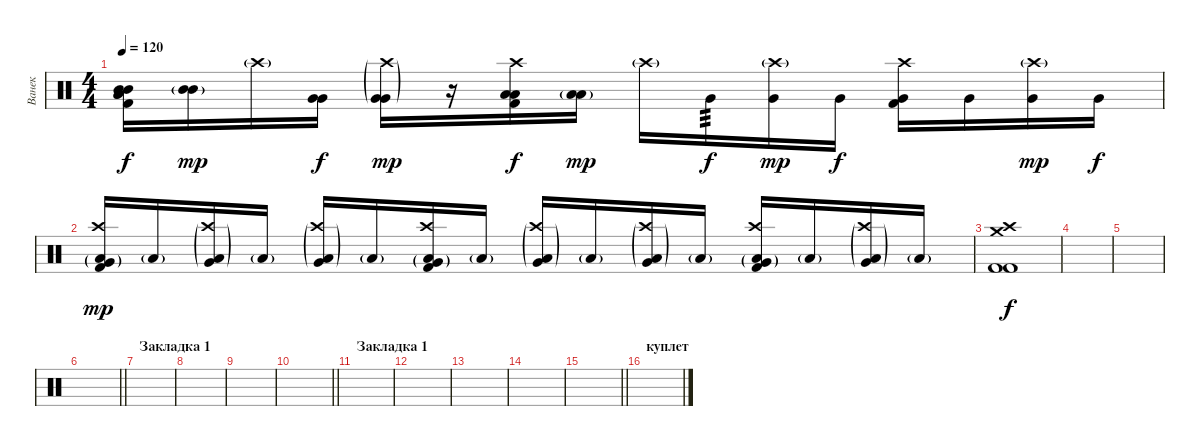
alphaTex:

\track ("Ванек" "Ванек") {instrument percussion}
\staff {score}
\articulation defaults
\ts (4 4)
\tempo 120
\clef neutral
\ks c
("Low Tom (hit)" "Mid Tom (hit)" "Mid Tom (hit)" "Low Floor Tom (hit)" "Kick (hit) 2").16{dy f} ("Mid Tom (hit)"{g} "Mid Tom (hit)"{g}).16{dy mp} "Crash high (hit)"{g}.16 ("Very Low Tom (hit)" "Very Low Tom (hit)").16{dy f} ("Crash high (hit)"{g} "Very Low Tom (hit)"{g} "Very Low Tom (hit)"{g}).16{dy mp} r.16 ("Crash high (hit)" "Low Floor Tom (hit)" "Low Floor Tom (hit)" "Kick (hit) 2").16{dy f} ("Low Floor Tom (hit)"{g} "Low Floor Tom (hit)"{g}).16{dy mp} "Crash high (hit)"{g}.16 "Very Low Tom (hit)".16{tp 3 dy f} ("Crash high (hit)"{g} "Very Low Tom (hit)").16{dy mp} "Very Low Tom (hit)".16{dy f} ("Crash high (hit)" "Very Low Tom (hit)" "Kick (hit) 2").16 "Very Low Tom (hit)".16 ("Crash high (hit)"{g} "Very Low Tom (hit)").16{dy mp} "Very Low Tom (hit)".16{dy f} |
("Crash high (hit)" "Very Low Tom (hit)"{g} "Low Floor Tom (hit)"{g} "Kick (hit) 2").16{dy mp} "Low Floor Tom (hit)"{g}.16 ("Crash high (hit)"{g} "Very Low Tom (hit)"{g} "Low Floor Tom (hit)"{g}).16 "Low Floor Tom (hit)"{g}.16 ("Crash high (hit)"{g} "Very Low Tom (hit)"{g} "Low Floor Tom (hit)"{g}).16 "Low Floor Tom (hit)"{g}.16 ("Crash high (hit)" "Very Low Tom (hit)"{g} "Low Floor Tom (hit)"{g} "Kick (hit) 2").16 "Low Floor Tom (hit)"{g}.16 ("Crash high (hit)"{g} "Very Low Tom (hit)"{g} "Low Floor Tom (hit)"{g}).16 "Low Floor Tom (hit)"{g}.16 ("Crash high (hit)"{g} "Very Low Tom (hit)"{g} "Low Floor Tom (hit)"{g}).16 "Low Floor Tom (hit)"{g}.16 ("Crash high (hit)" "Very Low Tom (hit)"{g} "Low Floor Tom (hit)"{g} "Kick (hit) 2").16 "Low Floor Tom (hit)"{g}.16 ("Crash high (hit)"{g} "Very Low Tom (hit)"{g} "Low Floor Tom (hit)"{g}).16 "Low Floor Tom (hit)"{g}.16 |
("Crash high (hit)" "Crash medium (hit)" "Kick (hit) 2" "Kick (hit) 2").1{dy f} |
|
|
\barLineRight lightlight
|
\section ("" "Закладка 1")
|
|
|
\barLineRight lightlight
|
\section ("" "Закладка 1")
|
|
|
|
\barLineRight lightlight
|
\section ("" "куплет")
